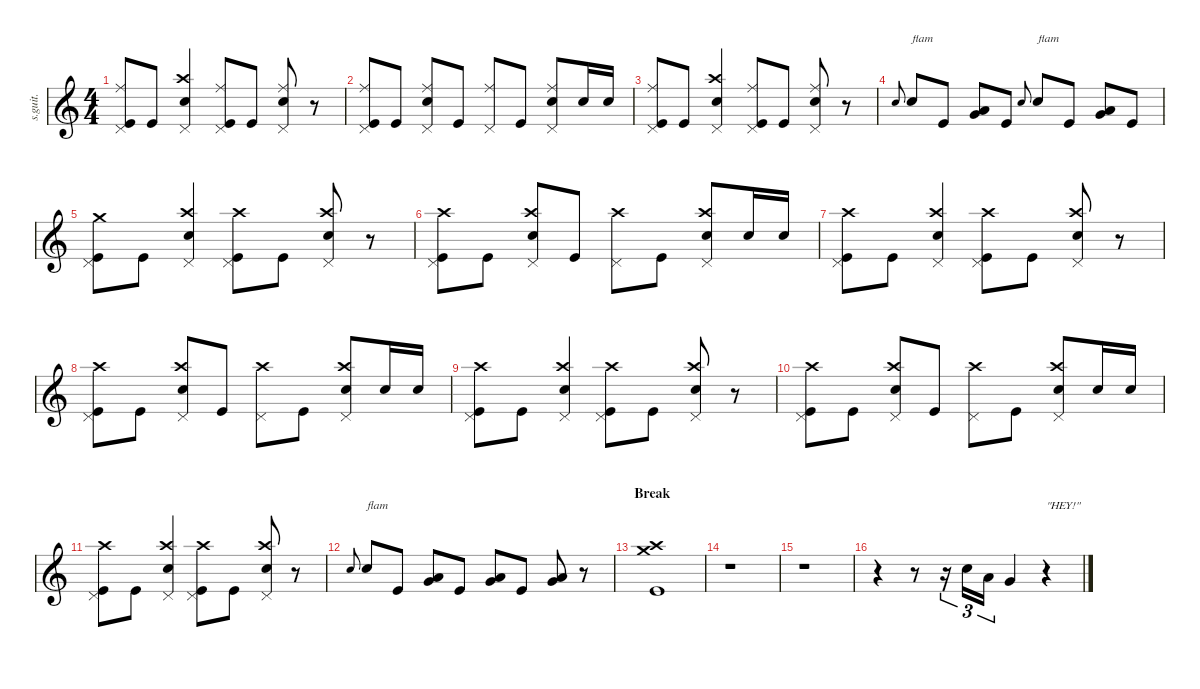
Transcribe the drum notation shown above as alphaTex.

\defaultSystemsLayout 4
\hideDynamics
\bracketExtendMode nobrackets
\track ("Dave Grohl" "s.guit.") {instrument percussion}
\staff {score}
\articulation defaults
\ts (4 4)
\tempo (210 hide)
\clef g2
\ks c
("Pedal Hi-Hat (hit)" "Ride (middle)" "Kick (hit)").8{lyrics (0 "") lyrics (1 "") lyrics (2 "") lyrics (3 "") lyrics (4 "") dy f} "Kick (hit)".8{lyrics (0 "") lyrics (1 "") lyrics (2 "") lyrics (3 "") lyrics (4 "")} ("Pedal Hi-Hat (hit)" "Crash high (hit)" "Snare (hit) 2").4{lyrics (0 "") lyrics (1 "") lyrics (2 "") lyrics (3 "") lyrics (4 "")} ("Pedal Hi-Hat (hit)" "Ride (middle)" "Kick (hit)").8{lyrics (0 "") lyrics (1 "") lyrics (2 "") lyrics (3 "") lyrics (4 "")} "Kick (hit)".8{lyrics (0 "") lyrics (1 "") lyrics (2 "") lyrics (3 "") lyrics (4 "")} ("Pedal Hi-Hat (hit)" "Ride (middle)" "Snare (hit) 2").8{lyrics (0 "") lyrics (1 "") lyrics (2 "") lyrics (3 "") lyrics (4 "")} r.8 |
("Pedal Hi-Hat (hit)" "Ride (middle)" "Kick (hit)").8{lyrics (0 "") lyrics (1 "") lyrics (2 "") lyrics (3 "") lyrics (4 "")} "Kick (hit)".8{lyrics (0 "") lyrics (1 "") lyrics (2 "") lyrics (3 "") lyrics (4 "")} ("Pedal Hi-Hat (hit)" "Ride (middle)" "Snare (hit) 2").8{lyrics (0 "") lyrics (1 "") lyrics (2 "") lyrics (3 "") lyrics (4 "")} "Kick (hit)".8{lyrics (0 "") lyrics (1 "") lyrics (2 "") lyrics (3 "") lyrics (4 "")} ("Pedal Hi-Hat (hit)" "Ride (middle)").8{lyrics (0 "") lyrics (1 "") lyrics (2 "") lyrics (3 "") lyrics (4 "")} "Kick (hit)".8{lyrics (0 "") lyrics (1 "") lyrics (2 "") lyrics (3 "") lyrics (4 "")} ("Pedal Hi-Hat (hit)" "Ride (middle)" "Snare (hit) 2").8{lyrics (0 "") lyrics (1 "") lyrics (2 "") lyrics (3 "") lyrics (4 "")} "Snare (hit) 2".16{lyrics (0 "") lyrics (1 "") lyrics (2 "") lyrics (3 "") lyrics (4 "") dy mf} "Snare (hit) 2".16{lyrics (0 "") lyrics (1 "") lyrics (2 "") lyrics (3 "") lyrics (4 "")} |
("Pedal Hi-Hat (hit)" "Ride (middle)" "Kick (hit)").8{lyrics (0 "") lyrics (1 "") lyrics (2 "") lyrics (3 "") lyrics (4 "") dy f} "Kick (hit)".8{lyrics (0 "") lyrics (1 "") lyrics (2 "") lyrics (3 "") lyrics (4 "")} ("Pedal Hi-Hat (hit)" "Crash high (hit)" "Snare (hit) 2").4{lyrics (0 "") lyrics (1 "") lyrics (2 "") lyrics (3 "") lyrics (4 "")} ("Pedal Hi-Hat (hit)" "Ride (middle)" "Kick (hit)").8{lyrics (0 "") lyrics (1 "") lyrics (2 "") lyrics (3 "") lyrics (4 "")} "Kick (hit)".8{lyrics (0 "") lyrics (1 "") lyrics (2 "") lyrics (3 "") lyrics (4 "")} ("Pedal Hi-Hat (hit)" "Ride (middle)" "Snare (hit) 2").8{lyrics (0 "") lyrics (1 "") lyrics (2 "") lyrics (3 "") lyrics (4 "")} r.8 |
"Snare (hit) 2".8{lyrics (0 "") lyrics (1 "") lyrics (2 "") lyrics (3 "") lyrics (4 "") gr onbeat} "Snare (hit) 2".8{txt "flam" lyrics (0 "") lyrics (1 "") lyrics (2 "") lyrics (3 "") lyrics (4 "")} "Kick (hit)".8{lyrics (0 "") lyrics (1 "") lyrics (2 "") lyrics (3 "") lyrics (4 "")} ("Very Low Tom (hit)" "Low Floor Tom (hit)").8{lyrics (0 "") lyrics (1 "") lyrics (2 "") lyrics (3 "") lyrics (4 "")} "Kick (hit)".8{lyrics (0 "") lyrics (1 "") lyrics (2 "") lyrics (3 "") lyrics (4 "")} "Snare (hit) 2".8{lyrics (0 "") lyrics (1 "") lyrics (2 "") lyrics (3 "") lyrics (4 "") gr onbeat} "Snare (hit) 2".8{txt "flam" lyrics (0 "") lyrics (1 "") lyrics (2 "") lyrics (3 "") lyrics (4 "")} "Kick (hit)".8{lyrics (0 "") lyrics (1 "") lyrics (2 "") lyrics (3 "") lyrics (4 "")} ("Very Low Tom (hit)" "Low Floor Tom (hit)").8{lyrics (0 "") lyrics (1 "") lyrics (2 "") lyrics (3 "") lyrics (4 "")} "Kick (hit)".8{lyrics (0 "") lyrics (1 "") lyrics (2 "") lyrics (3 "") lyrics (4 "")} |
("Crash medium (hit)" "Kick (hit)" "Pedal Hi-Hat (hit)").8{lyrics (0 "") lyrics (1 "") lyrics (2 "") lyrics (3 "") lyrics (4 "")} "Kick (hit)".8{lyrics (0 "") lyrics (1 "") lyrics (2 "") lyrics (3 "") lyrics (4 "")} ("Snare (hit) 2" "Crash high (hit)" "Pedal Hi-Hat (hit)").4{lyrics (0 "") lyrics (1 "") lyrics (2 "") lyrics (3 "") lyrics (4 "")} ("Kick (hit)" "Crash high (hit)" "Pedal Hi-Hat (hit)").8{lyrics (0 "") lyrics (1 "") lyrics (2 "") lyrics (3 "") lyrics (4 "")} "Kick (hit)".8{lyrics (0 "") lyrics (1 "") lyrics (2 "") lyrics (3 "") lyrics (4 "")} ("Snare (hit) 2" "Crash high (hit)" "Pedal Hi-Hat (hit)").8{lyrics (0 "") lyrics (1 "") lyrics (2 "") lyrics (3 "") lyrics (4 "")} r.8 |
("Kick (hit)" "Crash high (hit)" "Pedal Hi-Hat (hit)").8{lyrics (0 "") lyrics (1 "") lyrics (2 "") lyrics (3 "") lyrics (4 "")} "Kick (hit)".8{lyrics (0 "") lyrics (1 "") lyrics (2 "") lyrics (3 "") lyrics (4 "")} ("Snare (hit) 2" "Crash high (hit)" "Pedal Hi-Hat (hit)").8{lyrics (0 "") lyrics (1 "") lyrics (2 "") lyrics (3 "") lyrics (4 "")} "Kick (hit)".8{lyrics (0 "") lyrics (1 "") lyrics (2 "") lyrics (3 "") lyrics (4 "")} ("Crash high (hit)" "Pedal Hi-Hat (hit)").8{lyrics (0 "") lyrics (1 "") lyrics (2 "") lyrics (3 "") lyrics (4 "")} "Kick (hit)".8{lyrics (0 "") lyrics (1 "") lyrics (2 "") lyrics (3 "") lyrics (4 "")} ("Snare (hit) 2" "Crash high (hit)" "Pedal Hi-Hat (hit)").8{lyrics (0 "") lyrics (1 "") lyrics (2 "") lyrics (3 "") lyrics (4 "")} "Snare (hit) 2".16{lyrics (0 "") lyrics (1 "") lyrics (2 "") lyrics (3 "") lyrics (4 "") dy mf} "Snare (hit) 2".16{lyrics (0 "") lyrics (1 "") lyrics (2 "") lyrics (3 "") lyrics (4 "")} |
("Kick (hit)" "Crash high (hit)" "Pedal Hi-Hat (hit)").8{lyrics (0 "") lyrics (1 "") lyrics (2 "") lyrics (3 "") lyrics (4 "") dy f} "Kick (hit)".8{lyrics (0 "") lyrics (1 "") lyrics (2 "") lyrics (3 "") lyrics (4 "")} ("Snare (hit) 2" "Crash high (hit)" "Pedal Hi-Hat (hit)").4{lyrics (0 "") lyrics (1 "") lyrics (2 "") lyrics (3 "") lyrics (4 "")} ("Kick (hit)" "Crash high (hit)" "Pedal Hi-Hat (hit)").8{lyrics (0 "") lyrics (1 "") lyrics (2 "") lyrics (3 "") lyrics (4 "")} "Kick (hit)".8{lyrics (0 "") lyrics (1 "") lyrics (2 "") lyrics (3 "") lyrics (4 "")} ("Snare (hit) 2" "Crash high (hit)" "Pedal Hi-Hat (hit)").8{lyrics (0 "") lyrics (1 "") lyrics (2 "") lyrics (3 "") lyrics (4 "")} r.8 |
("Kick (hit)" "Crash high (hit)" "Pedal Hi-Hat (hit)").8{lyrics (0 "") lyrics (1 "") lyrics (2 "") lyrics (3 "") lyrics (4 "")} "Kick (hit)".8{lyrics (0 "") lyrics (1 "") lyrics (2 "") lyrics (3 "") lyrics (4 "")} ("Snare (hit) 2" "Crash high (hit)" "Pedal Hi-Hat (hit)").8{lyrics (0 "") lyrics (1 "") lyrics (2 "") lyrics (3 "") lyrics (4 "")} "Kick (hit)".8{lyrics (0 "") lyrics (1 "") lyrics (2 "") lyrics (3 "") lyrics (4 "")} ("Crash high (hit)" "Pedal Hi-Hat (hit)").8{lyrics (0 "") lyrics (1 "") lyrics (2 "") lyrics (3 "") lyrics (4 "")} "Kick (hit)".8{lyrics (0 "") lyrics (1 "") lyrics (2 "") lyrics (3 "") lyrics (4 "")} ("Snare (hit) 2" "Crash high (hit)" "Pedal Hi-Hat (hit)").8{lyrics (0 "") lyrics (1 "") lyrics (2 "") lyrics (3 "") lyrics (4 "")} "Snare (hit) 2".16{lyrics (0 "") lyrics (1 "") lyrics (2 "") lyrics (3 "") lyrics (4 "") dy mf} "Snare (hit) 2".16{lyrics (0 "") lyrics (1 "") lyrics (2 "") lyrics (3 "") lyrics (4 "")} |
("Kick (hit)" "Crash high (hit)" "Pedal Hi-Hat (hit)").8{lyrics (0 "") lyrics (1 "") lyrics (2 "") lyrics (3 "") lyrics (4 "") dy f} "Kick (hit)".8{lyrics (0 "") lyrics (1 "") lyrics (2 "") lyrics (3 "") lyrics (4 "")} ("Snare (hit) 2" "Crash high (hit)" "Pedal Hi-Hat (hit)").4{lyrics (0 "") lyrics (1 "") lyrics (2 "") lyrics (3 "") lyrics (4 "")} ("Kick (hit)" "Crash high (hit)" "Pedal Hi-Hat (hit)").8{lyrics (0 "") lyrics (1 "") lyrics (2 "") lyrics (3 "") lyrics (4 "")} "Kick (hit)".8{lyrics (0 "") lyrics (1 "") lyrics (2 "") lyrics (3 "") lyrics (4 "")} ("Snare (hit) 2" "Crash high (hit)" "Pedal Hi-Hat (hit)").8{lyrics (0 "") lyrics (1 "") lyrics (2 "") lyrics (3 "") lyrics (4 "")} r.8 |
("Kick (hit)" "Crash high (hit)" "Pedal Hi-Hat (hit)").8{lyrics (0 "") lyrics (1 "") lyrics (2 "") lyrics (3 "") lyrics (4 "")} "Kick (hit)".8{lyrics (0 "") lyrics (1 "") lyrics (2 "") lyrics (3 "") lyrics (4 "")} ("Snare (hit) 2" "Crash high (hit)" "Pedal Hi-Hat (hit)").8{lyrics (0 "") lyrics (1 "") lyrics (2 "") lyrics (3 "") lyrics (4 "")} "Kick (hit)".8{lyrics (0 "") lyrics (1 "") lyrics (2 "") lyrics (3 "") lyrics (4 "")} ("Crash high (hit)" "Pedal Hi-Hat (hit)").8{lyrics (0 "") lyrics (1 "") lyrics (2 "") lyrics (3 "") lyrics (4 "")} "Kick (hit)".8{lyrics (0 "") lyrics (1 "") lyrics (2 "") lyrics (3 "") lyrics (4 "")} ("Snare (hit) 2" "Crash high (hit)" "Pedal Hi-Hat (hit)").8{lyrics (0 "") lyrics (1 "") lyrics (2 "") lyrics (3 "") lyrics (4 "")} "Snare (hit) 2".16{lyrics (0 "") lyrics (1 "") lyrics (2 "") lyrics (3 "") lyrics (4 "") dy mf} "Snare (hit) 2".16{lyrics (0 "") lyrics (1 "") lyrics (2 "") lyrics (3 "") lyrics (4 "")} |
("Kick (hit)" "Crash high (hit)" "Pedal Hi-Hat (hit)").8{lyrics (0 "") lyrics (1 "") lyrics (2 "") lyrics (3 "") lyrics (4 "") dy f} "Kick (hit)".8{lyrics (0 "") lyrics (1 "") lyrics (2 "") lyrics (3 "") lyrics (4 "")} ("Snare (hit) 2" "Crash high (hit)" "Pedal Hi-Hat (hit)").4{lyrics (0 "") lyrics (1 "") lyrics (2 "") lyrics (3 "") lyrics (4 "")} ("Kick (hit)" "Crash high (hit)" "Pedal Hi-Hat (hit)").8{lyrics (0 "") lyrics (1 "") lyrics (2 "") lyrics (3 "") lyrics (4 "")} "Kick (hit)".8{lyrics (0 "") lyrics (1 "") lyrics (2 "") lyrics (3 "") lyrics (4 "")} ("Snare (hit) 2" "Crash high (hit)" "Pedal Hi-Hat (hit)").8{lyrics (0 "") lyrics (1 "") lyrics (2 "") lyrics (3 "") lyrics (4 "")} r.8 |
"Snare (hit) 2".8{lyrics (0 "") lyrics (1 "") lyrics (2 "") lyrics (3 "") lyrics (4 "") gr onbeat} "Snare (hit) 2".8{txt "flam" lyrics (0 "") lyrics (1 "") lyrics (2 "") lyrics (3 "") lyrics (4 "")} "Kick (hit)".8{lyrics (0 "") lyrics (1 "") lyrics (2 "") lyrics (3 "") lyrics (4 "")} ("Very Low Tom (hit)" "Low Floor Tom (hit)").8{lyrics (0 "") lyrics (1 "") lyrics (2 "") lyrics (3 "") lyrics (4 "")} "Kick (hit)".8{lyrics (0 "") lyrics (1 "") lyrics (2 "") lyrics (3 "") lyrics (4 "")} ("Very Low Tom (hit)" "Low Floor Tom (hit)").8{lyrics (0 "") lyrics (1 "") lyrics (2 "") lyrics (3 "") lyrics (4 "")} "Kick (hit)".8{lyrics (0 "") lyrics (1 "") lyrics (2 "") lyrics (3 "") lyrics (4 "")} ("Very Low Tom (hit)" "Low Floor Tom (hit)").8{lyrics (0 "") lyrics (1 "") lyrics (2 "") lyrics (3 "") lyrics (4 "")} r.8 |
\section ("" "Break")
("Crash high (hit)" "Crash medium (hit)" "Kick (hit)").1{lyrics (0 "") lyrics (1 "") lyrics (2 "") lyrics (3 "") lyrics (4 "")} |
r.1 |
r.1 |
r.4 r.8 r.16{tu (3 2)} "Snare (hit) 2".16{tu (3 2) lyrics (0 "") lyrics (1 "") lyrics (2 "") lyrics (3 "") lyrics (4 "")} "Low Floor Tom (hit)".16{tu (3 2) lyrics (0 "") lyrics (1 "") lyrics (2 "") lyrics (3 "") lyrics (4 "")} "Very Low Tom (hit)".4{lyrics (0 "") lyrics (1 "") lyrics (2 "") lyrics (3 "") lyrics (4 "")} r.4{txt "\"HEY!\""}
